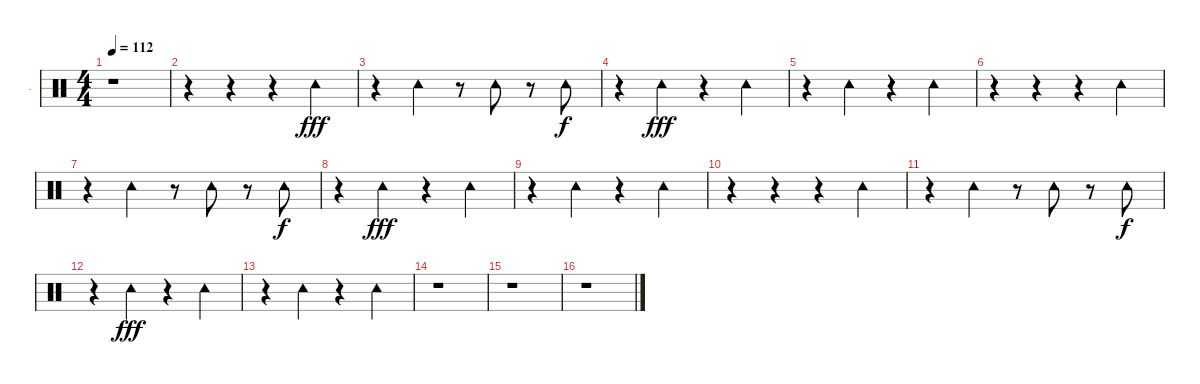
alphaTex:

\track ("." ".") {instrument percussion}
\staff {score}
\articulation defaults
\ts (4 4)
\tempo 112
\clef neutral
\ks c
r.1{dy fff} |
r.4 r.4 r.4 "Tambourine (hit)".4 |
r.4 "Tambourine (hit)".4 r.8 "Tambourine (hit)".8 r.8 "Tambourine (hit)".8{dy f} |
r.4 "Tambourine (hit)".4{dy fff} r.4 "Tambourine (hit)".4 |
r.4 "Tambourine (hit)".4 r.4 "Tambourine (hit)".4 |
r.4 r.4 r.4 "Tambourine (hit)".4 |
r.4 "Tambourine (hit)".4 r.8 "Tambourine (hit)".8 r.8 "Tambourine (hit)".8{dy f} |
r.4 "Tambourine (hit)".4{dy fff} r.4 "Tambourine (hit)".4 |
r.4 "Tambourine (hit)".4 r.4 "Tambourine (hit)".4 |
r.4 r.4 r.4 "Tambourine (hit)".4 |
r.4 "Tambourine (hit)".4 r.8 "Tambourine (hit)".8 r.8 "Tambourine (hit)".8{dy f} |
r.4 "Tambourine (hit)".4{dy fff} r.4 "Tambourine (hit)".4 |
r.4 "Tambourine (hit)".4 r.4 "Tambourine (hit)".4 |
r.1 |
r.1 |
r.1
